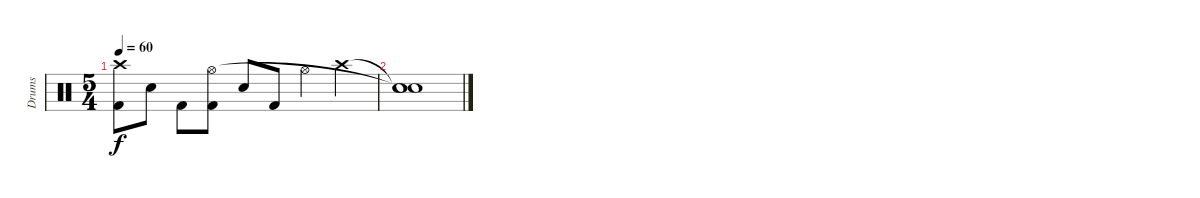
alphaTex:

\track ("Drums" "Drums") {instrument percussion}
\staff {score}
\articulation defaults
\ts (5 4)
\tempo 60
\clef neutral
\ks c
("Crash high (hit)" "Kick (hit) 2").8{dy f} "Snare (hit) 2".8 "Kick (hit) 2".8 ("Kick (hit) 2" "Hi-Hat (open)").8 "Electric Snare (hit)".8 "Kick (hit) 2".8 "Hi-Hat (open)".4 "Crash high (hit)".4 |
("Snare (hit)"{t} "Snare (hit)"{t} "Snare (hit)").1
